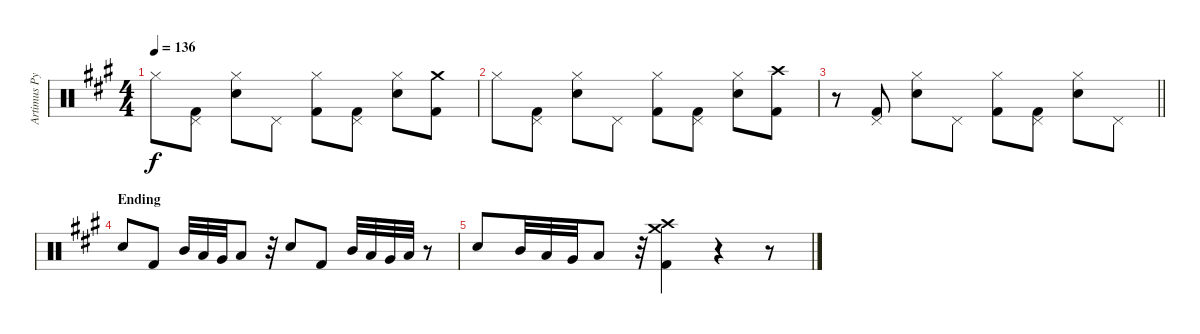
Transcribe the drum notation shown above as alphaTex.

\track ("Artimus Pyle - Drums" "Artimus Py") {instrument percussion}
\staff {score}
\articulation defaults
\ts (4 4)
\tempo 136
\clef neutral
\ks a "Hi-Hat (closed)".8{dy f}
("Pedal Hi-Hat (hit)" "Kick (hit) 2").8 ("Snare (hit) 2" "Hi-Hat (closed)").8 "Pedal Hi-Hat (hit)".8 ("Hi-Hat (closed)" "Kick (hit) 2").8 ("Pedal Hi-Hat (hit)" "Kick (hit) 2").8 ("Snare (hit) 2" "Hi-Hat (closed)").8 ("Crash medium (hit)" "Kick (hit) 2").8 |
"Hi-Hat (closed)".8 ("Pedal Hi-Hat (hit)" "Kick (hit) 2").8 ("Snare (hit) 2" "Hi-Hat (closed)").8 "Pedal Hi-Hat (hit)".8 ("Hi-Hat (closed)" "Kick (hit) 2").8 ("Pedal Hi-Hat (hit)" "Kick (hit) 2").8 ("Snare (hit) 2" "Hi-Hat (closed)").8 ("Crash high (hit)" "Kick (hit) 2").8 |
\barLineRight lightlight
r.8 ("Pedal Hi-Hat (hit)" "Kick (hit) 2").8 ("Snare (hit) 2" "Hi-Hat (closed)").8 "Pedal Hi-Hat (hit)".8 ("Hi-Hat (closed)" "Kick (hit) 2").8 ("Pedal Hi-Hat (hit)" "Kick (hit) 2").8 ("Snare (hit) 2" "Hi-Hat (closed)").8 "Pedal Hi-Hat (hit)".8 |
\section ("" "Ending")
"Snare (hit) 2".8 "Kick (hit) 2".8 "Mid Tom (hit)".32 "Low Tom (hit)".32 "Very Low Tom (hit)".32 "Low Floor Tom (hit)".8 r.32 "Snare (hit) 2".8 "Kick (hit) 2".8 "Mid Tom (hit)".32 "Low Tom (hit)".32 "Very Low Tom (hit)".32 "Low Floor Tom (hit)".32 r.8 |
"Snare (hit) 2".8 "Mid Tom (hit)".32 "Low Tom (hit)".32 "Very Low Tom (hit)".32 "Low Floor Tom (hit)".8 r.32 ("Crash medium (hit)" "Crash high (hit)" "Kick (hit) 2").4 r.4 r.8
